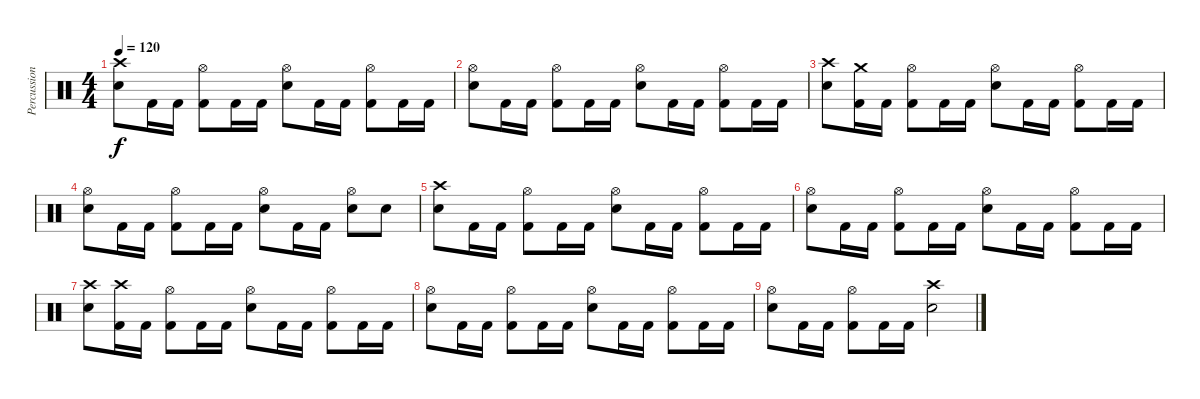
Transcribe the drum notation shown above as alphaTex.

\track ("Percussion" "Percussion") {instrument percussion}
\staff {score}
\articulation defaults
\ts (4 4)
\tempo 120
\clef neutral
\ks c
("Crash high (hit)" "Snare (hit) 2").8{dy f} "Kick (hit) 2".16 "Kick (hit) 2".16 ("Hi-Hat (open)" "Kick (hit) 2").8 "Kick (hit) 2".16 "Kick (hit) 2".16 ("Hi-Hat (open)" "Snare (hit) 2").8 "Kick (hit) 2".16 "Kick (hit) 2".16 ("Hi-Hat (open)" "Kick (hit) 2").8 "Kick (hit) 2".16 "Kick (hit) 2".16 |
("Hi-Hat (open)" "Snare (hit) 2").8 "Kick (hit) 2".16 "Kick (hit) 2".16 ("Hi-Hat (open)" "Kick (hit) 2").8 "Kick (hit) 2".16 "Kick (hit) 2".16 ("Hi-Hat (open)" "Snare (hit) 2").8 "Kick (hit) 2".16 "Kick (hit) 2".16 ("Hi-Hat (open)" "Kick (hit) 2").8 "Kick (hit) 2".16 "Kick (hit) 2".16 |
("Crash high (hit)" "Snare (hit) 2").8 ("Crash medium (hit)" "Kick (hit) 2").16 "Kick (hit) 2".16 ("Hi-Hat (open)" "Kick (hit) 2").8 "Kick (hit) 2".16 "Kick (hit) 2".16 ("Hi-Hat (open)" "Snare (hit) 2").8 "Kick (hit) 2".16 "Kick (hit) 2".16 ("Hi-Hat (open)" "Kick (hit) 2").8 "Kick (hit) 2".16 "Kick (hit) 2".16 |
("Hi-Hat (open)" "Snare (hit) 2").8 "Kick (hit) 2".16 "Kick (hit) 2".16 ("Hi-Hat (open)" "Kick (hit) 2").8 "Kick (hit) 2".16 "Kick (hit) 2".16 ("Hi-Hat (open)" "Snare (hit) 2").8 "Kick (hit) 2".16 "Kick (hit) 2".16 ("Hi-Hat (open)" "Snare (hit) 2").8 "Snare (hit) 2".8 |
("Crash high (hit)" "Snare (hit) 2").8 "Kick (hit) 2".16 "Kick (hit) 2".16 ("Hi-Hat (open)" "Kick (hit) 2").8 "Kick (hit) 2".16 "Kick (hit) 2".16 ("Hi-Hat (open)" "Snare (hit) 2").8 "Kick (hit) 2".16 "Kick (hit) 2".16 ("Hi-Hat (open)" "Kick (hit) 2").8 "Kick (hit) 2".16 "Kick (hit) 2".16 |
("Hi-Hat (open)" "Snare (hit) 2").8 "Kick (hit) 2".16 "Kick (hit) 2".16 ("Hi-Hat (open)" "Kick (hit) 2").8 "Kick (hit) 2".16 "Kick (hit) 2".16 ("Hi-Hat (open)" "Snare (hit) 2").8 "Kick (hit) 2".16 "Kick (hit) 2".16 ("Hi-Hat (open)" "Kick (hit) 2").8 "Kick (hit) 2".16 "Kick (hit) 2".16 |
("Crash high (hit)" "Snare (hit) 2").8 ("Crash high (hit)" "Kick (hit) 2").16 "Kick (hit) 2".16 ("Hi-Hat (open)" "Kick (hit) 2").8 "Kick (hit) 2".16 "Kick (hit) 2".16 ("Hi-Hat (open)" "Snare (hit) 2").8 "Kick (hit) 2".16 "Kick (hit) 2".16 ("Hi-Hat (open)" "Kick (hit) 2").8 "Kick (hit) 2".16 "Kick (hit) 2".16 |
("Hi-Hat (open)" "Snare (hit) 2").8 "Kick (hit) 2".16 "Kick (hit) 2".16 ("Hi-Hat (open)" "Kick (hit) 2").8 "Kick (hit) 2".16 "Kick (hit) 2".16 ("Hi-Hat (open)" "Snare (hit) 2").8 "Kick (hit) 2".16 "Kick (hit) 2".16 ("Hi-Hat (open)" "Kick (hit) 2").8 "Kick (hit) 2".16 "Kick (hit) 2".16 |
("Hi-Hat (open)" "Snare (hit) 2").8 "Kick (hit) 2".16 "Kick (hit) 2".16 ("Hi-Hat (open)" "Kick (hit) 2").8 "Kick (hit) 2".16 "Kick (hit) 2".16 ("Crash high (hit)" "Snare (hit) 2").2
